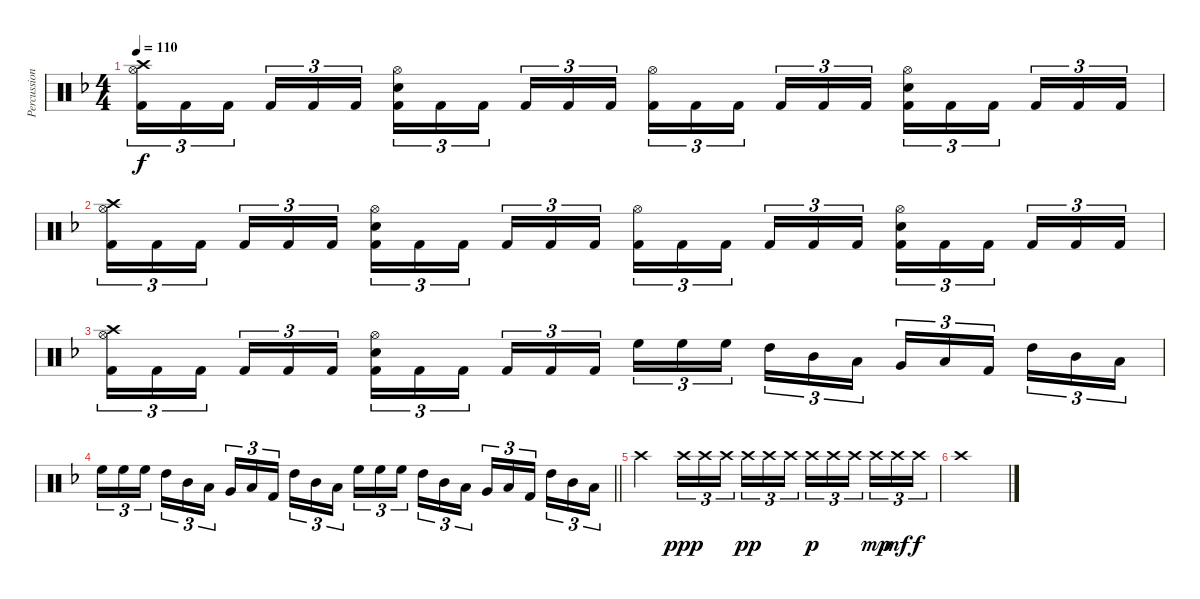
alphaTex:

\track ("Percussion" "Percussion") {instrument percussion}
\staff {score}
\articulation defaults
\ts (4 4)
\tempo 110
\clef neutral
\ks dminor
("Crash high (hit)" "Hi-Hat (open)" "Kick (hit) 2").16{tu (3 2) dy f} "Kick (hit) 2".16{tu (3 2)} "Kick (hit) 2".16{tu (3 2)} "Kick (hit) 2".16{tu (3 2)} "Kick (hit) 2".16{tu (3 2)} "Kick (hit) 2".16{tu (3 2)} ("Hi-Hat (open)" "Electric Snare (hit)" "Kick (hit) 2").16{tu (3 2)} "Kick (hit) 2".16{tu (3 2)} "Kick (hit) 2".16{tu (3 2)} "Kick (hit) 2".16{tu (3 2)} "Kick (hit) 2".16{tu (3 2)} "Kick (hit) 2".16{tu (3 2)} ("Hi-Hat (open)" "Kick (hit) 2").16{tu (3 2)} "Kick (hit) 2".16{tu (3 2)} "Kick (hit) 2".16{tu (3 2)} "Kick (hit) 2".16{tu (3 2)} "Kick (hit) 2".16{tu (3 2)} "Kick (hit) 2".16{tu (3 2)} ("Hi-Hat (open)" "Electric Snare (hit)" "Kick (hit) 2").16{tu (3 2)} "Kick (hit) 2".16{tu (3 2)} "Kick (hit) 2".16{tu (3 2)} "Kick (hit) 2".16{tu (3 2)} "Kick (hit) 2".16{tu (3 2)} "Kick (hit) 2".16{tu (3 2)} |
("Crash high (hit)" "Hi-Hat (open)" "Kick (hit) 2").16{tu (3 2)} "Kick (hit) 2".16{tu (3 2)} "Kick (hit) 2".16{tu (3 2)} "Kick (hit) 2".16{tu (3 2)} "Kick (hit) 2".16{tu (3 2)} "Kick (hit) 2".16{tu (3 2)} ("Hi-Hat (open)" "Electric Snare (hit)" "Kick (hit) 2").16{tu (3 2)} "Kick (hit) 2".16{tu (3 2)} "Kick (hit) 2".16{tu (3 2)} "Kick (hit) 2".16{tu (3 2)} "Kick (hit) 2".16{tu (3 2)} "Kick (hit) 2".16{tu (3 2)} ("Hi-Hat (open)" "Kick (hit) 2").16{tu (3 2)} "Kick (hit) 2".16{tu (3 2)} "Kick (hit) 2".16{tu (3 2)} "Kick (hit) 2".16{tu (3 2)} "Kick (hit) 2".16{tu (3 2)} "Kick (hit) 2".16{tu (3 2)} ("Hi-Hat (open)" "Electric Snare (hit)" "Kick (hit) 2").16{tu (3 2)} "Kick (hit) 2".16{tu (3 2)} "Kick (hit) 2".16{tu (3 2)} "Kick (hit) 2".16{tu (3 2)} "Kick (hit) 2".16{tu (3 2)} "Kick (hit) 2".16{tu (3 2)} |
("Crash high (hit)" "Hi-Hat (open)" "Kick (hit) 2").16{tu (3 2)} "Kick (hit) 2".16{tu (3 2)} "Kick (hit) 2".16{tu (3 2)} "Kick (hit) 2".16{tu (3 2)} "Kick (hit) 2".16{tu (3 2)} "Kick (hit) 2".16{tu (3 2)} ("Hi-Hat (open)" "Electric Snare (hit)" "Kick (hit) 2").16{tu (3 2)} "Kick (hit) 2".16{tu (3 2)} "Kick (hit) 2".16{tu (3 2)} "Kick (hit) 2".16{tu (3 2)} "Kick (hit) 2".16{tu (3 2)} "Kick (hit) 2".16{tu (3 2)} "High Floor Tom (hit)".16{tu (3 2)} "High Floor Tom (hit)".16{tu (3 2)} "High Floor Tom (hit)".16{tu (3 2)} "High Tom (hit)".16{tu (3 2)} "Mid Tom (hit)".16{tu (3 2)} "Low Tom (hit)".16{tu (3 2)} "Very Low Tom (hit)".16{tu (3 2)} "Low Floor Tom (hit)".16{tu (3 2)} "Kick (hit) 2".16{tu (3 2)} "High Tom (hit)".16{tu (3 2)} "Mid Tom (hit)".16{tu (3 2)} "Low Tom (hit)".16{tu (3 2)} |
\barLineRight lightlight "High Floor Tom (hit)".16{tu (3 2)} "High Floor Tom (hit)".16{tu (3 2)} "High Floor Tom (hit)".16{tu (3 2)} "High Tom (hit)".16{tu (3 2)} "Mid Tom (hit)".16{tu (3 2)} "Low Tom (hit)".16{tu (3 2)} "Very Low Tom (hit)".16{tu (3 2)} "Low Floor Tom (hit)".16{tu (3 2)} "Kick (hit) 2".16{tu (3 2)} "High Tom (hit)".16{tu (3 2)} "Mid Tom (hit)".16{tu (3 2)} "Low Tom (hit)".16{tu (3 2)} "High Floor Tom (hit)".16{tu (3 2)} "High Floor Tom (hit)".16{tu (3 2)} "High Floor Tom (hit)".16{tu (3 2)} "High Tom (hit)".16{tu (3 2)} "Mid Tom (hit)".16{tu (3 2)} "Low Tom (hit)".16{tu (3 2)} "Very Low Tom (hit)".16{tu (3 2)} "Low Floor Tom (hit)".16{tu (3 2)} "Kick (hit) 2".16{tu (3 2)} "High Tom (hit)".16{tu (3 2)} "Mid Tom (hit)".16{tu (3 2)} "Low Tom (hit)".16{tu (3 2)}
|
"Crash high (hit)".2 "Crash high (hit)".16{tu (3 2) dy ppp} "Crash high (hit)".16{tu (3 2)} "Crash high (hit)".16{tu (3 2)} "Crash high (hit)".16{tu (3 2) dy pp} "Crash high (hit)".16{tu (3 2)} "Crash high (hit)".16{tu (3 2)} "Crash high (hit)".16{tu (3 2) dy p} "Crash high (hit)".16{tu (3 2)} "Crash high (hit)".16{tu (3 2)} "Crash high (hit)".16{tu (3 2) dy mp} "Crash high (hit)".16{tu (3 2) dy mf} "Crash high (hit)".16{tu (3 2) dy f} |
"Crash high (hit)".1
